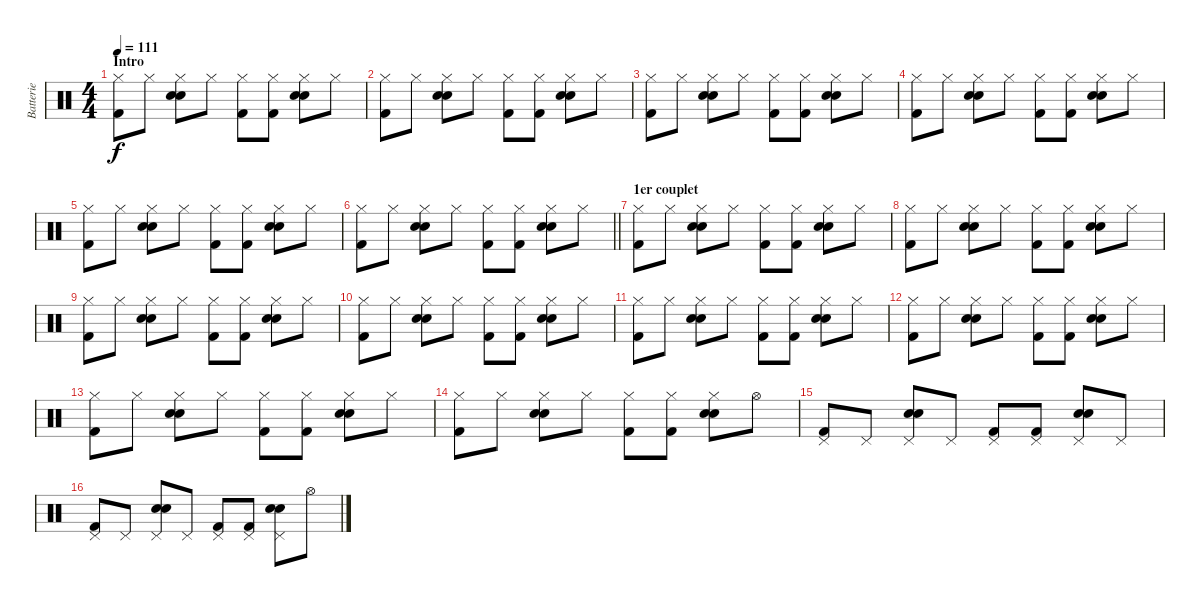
\track ("Batterie" "Batterie") {instrument percussion}
\staff {score}
\articulation defaults
\ts (4 4)
\section ("" "Intro")
\tempo 111
\clef neutral
\ks c
("Kick (hit) 2" "Hi-Hat (closed)").8{dy f} "Hi-Hat (closed)".8 ("Electric Snare (hit)" "Hi-Hat (closed)" "Hand Clap (hit)").8 "Hi-Hat (closed)".8 ("Kick (hit) 2" "Hi-Hat (closed)").8 ("Kick (hit) 2" "Hi-Hat (closed)").8 ("Electric Snare (hit)" "Hi-Hat (closed)" "Hand Clap (hit)").8 "Hi-Hat (closed)".8 |
("Kick (hit) 2" "Hi-Hat (closed)").8 "Hi-Hat (closed)".8 ("Electric Snare (hit)" "Hi-Hat (closed)" "Hand Clap (hit)").8 "Hi-Hat (closed)".8 ("Kick (hit) 2" "Hi-Hat (closed)").8 ("Kick (hit) 2" "Hi-Hat (closed)").8 ("Electric Snare (hit)" "Hi-Hat (closed)" "Hand Clap (hit)").8 "Hi-Hat (closed)".8 |
("Kick (hit) 2" "Hi-Hat (closed)").8 "Hi-Hat (closed)".8 ("Electric Snare (hit)" "Hi-Hat (closed)" "Hand Clap (hit)").8 "Hi-Hat (closed)".8 ("Kick (hit) 2" "Hi-Hat (closed)").8 ("Kick (hit) 2" "Hi-Hat (closed)").8 ("Electric Snare (hit)" "Hi-Hat (closed)" "Hand Clap (hit)").8 "Hi-Hat (closed)".8 |
("Kick (hit) 2" "Hi-Hat (closed)").8 "Hi-Hat (closed)".8 ("Electric Snare (hit)" "Hi-Hat (closed)" "Hand Clap (hit)").8 "Hi-Hat (closed)".8 ("Kick (hit) 2" "Hi-Hat (closed)").8 ("Kick (hit) 2" "Hi-Hat (closed)").8 ("Electric Snare (hit)" "Hi-Hat (closed)" "Hand Clap (hit)").8 "Hi-Hat (closed)".8 |
("Kick (hit) 2" "Hi-Hat (closed)").8 "Hi-Hat (closed)".8 ("Electric Snare (hit)" "Hi-Hat (closed)" "Hand Clap (hit)").8 "Hi-Hat (closed)".8 ("Kick (hit) 2" "Hi-Hat (closed)").8 ("Kick (hit) 2" "Hi-Hat (closed)").8 ("Electric Snare (hit)" "Hi-Hat (closed)" "Hand Clap (hit)").8 "Hi-Hat (closed)".8 |
\barLineRight lightlight
("Kick (hit) 2" "Hi-Hat (closed)").8 "Hi-Hat (closed)".8 ("Electric Snare (hit)" "Hi-Hat (closed)" "Hand Clap (hit)").8 "Hi-Hat (closed)".8 ("Kick (hit) 2" "Hi-Hat (closed)").8 ("Kick (hit) 2" "Hi-Hat (closed)").8 ("Electric Snare (hit)" "Hi-Hat (closed)" "Hand Clap (hit)").8 "Hi-Hat (closed)".8 |
\section ("" "1er couplet")
("Kick (hit) 2" "Hi-Hat (closed)").8 "Hi-Hat (closed)".8 ("Electric Snare (hit)" "Hi-Hat (closed)" "Hand Clap (hit)").8 "Hi-Hat (closed)".8 ("Kick (hit) 2" "Hi-Hat (closed)").8 ("Kick (hit) 2" "Hi-Hat (closed)").8 ("Electric Snare (hit)" "Hi-Hat (closed)" "Hand Clap (hit)").8 "Hi-Hat (closed)".8 |
("Kick (hit) 2" "Hi-Hat (closed)").8 "Hi-Hat (closed)".8 ("Electric Snare (hit)" "Hi-Hat (closed)" "Hand Clap (hit)").8 "Hi-Hat (closed)".8 ("Kick (hit) 2" "Hi-Hat (closed)").8 ("Kick (hit) 2" "Hi-Hat (closed)").8 ("Electric Snare (hit)" "Hi-Hat (closed)" "Hand Clap (hit)").8 "Hi-Hat (closed)".8 |
("Kick (hit) 2" "Hi-Hat (closed)").8 "Hi-Hat (closed)".8 ("Electric Snare (hit)" "Hi-Hat (closed)" "Hand Clap (hit)").8 "Hi-Hat (closed)".8 ("Kick (hit) 2" "Hi-Hat (closed)").8 ("Kick (hit) 2" "Hi-Hat (closed)").8 ("Electric Snare (hit)" "Hi-Hat (closed)" "Hand Clap (hit)").8 "Hi-Hat (closed)".8 |
("Kick (hit) 2" "Hi-Hat (closed)").8 "Hi-Hat (closed)".8 ("Electric Snare (hit)" "Hi-Hat (closed)" "Hand Clap (hit)").8 "Hi-Hat (closed)".8 ("Kick (hit) 2" "Hi-Hat (closed)").8 ("Kick (hit) 2" "Hi-Hat (closed)").8 ("Electric Snare (hit)" "Hi-Hat (closed)" "Hand Clap (hit)").8 "Hi-Hat (closed)".8 |
("Kick (hit) 2" "Hi-Hat (closed)").8 "Hi-Hat (closed)".8 ("Electric Snare (hit)" "Hi-Hat (closed)" "Hand Clap (hit)").8 "Hi-Hat (closed)".8 ("Kick (hit) 2" "Hi-Hat (closed)").8 ("Kick (hit) 2" "Hi-Hat (closed)").8 ("Electric Snare (hit)" "Hi-Hat (closed)" "Hand Clap (hit)").8 "Hi-Hat (closed)".8 |
("Kick (hit) 2" "Hi-Hat (closed)").8 "Hi-Hat (closed)".8 ("Electric Snare (hit)" "Hi-Hat (closed)" "Hand Clap (hit)").8 "Hi-Hat (closed)".8 ("Kick (hit) 2" "Hi-Hat (closed)").8 ("Kick (hit) 2" "Hi-Hat (closed)").8 ("Electric Snare (hit)" "Hi-Hat (closed)" "Hand Clap (hit)").8 "Hi-Hat (closed)".8 |
("Kick (hit) 2" "Hi-Hat (closed)").8 "Hi-Hat (closed)".8 ("Electric Snare (hit)" "Hi-Hat (closed)" "Hand Clap (hit)").8 "Hi-Hat (closed)".8 ("Kick (hit) 2" "Hi-Hat (closed)").8 ("Kick (hit) 2" "Hi-Hat (closed)").8 ("Electric Snare (hit)" "Hi-Hat (closed)" "Hand Clap (hit)").8 "Hi-Hat (closed)".8 |
("Kick (hit) 2" "Hi-Hat (closed)").8 "Hi-Hat (closed)".8 ("Electric Snare (hit)" "Hi-Hat (closed)" "Hand Clap (hit)").8 "Hi-Hat (closed)".8 ("Kick (hit) 2" "Hi-Hat (closed)").8 ("Kick (hit) 2" "Hi-Hat (closed)").8 ("Electric Snare (hit)" "Hi-Hat (closed)" "Hand Clap (hit)").8 "Hi-Hat (open)".8 |
("Kick (hit) 2" "Pedal Hi-Hat (hit)").8 "Pedal Hi-Hat (hit)".8 ("Snare (hit) 2" "Pedal Hi-Hat (hit)" "Hand Clap (hit)").8 "Pedal Hi-Hat (hit)".8 ("Kick (hit) 2" "Pedal Hi-Hat (hit)").8 ("Kick (hit) 2" "Pedal Hi-Hat (hit)").8 ("Snare (hit) 2" "Pedal Hi-Hat (hit)" "Hand Clap (hit)").8 "Pedal Hi-Hat (hit)".8 |
("Kick (hit) 2" "Pedal Hi-Hat (hit)").8 "Pedal Hi-Hat (hit)".8 ("Snare (hit) 2" "Pedal Hi-Hat (hit)" "Hand Clap (hit)").8 "Pedal Hi-Hat (hit)".8 ("Kick (hit) 2" "Pedal Hi-Hat (hit)").8 ("Kick (hit) 2" "Pedal Hi-Hat (hit)").8 ("Snare (hit) 2" "Pedal Hi-Hat (hit)" "Hand Clap (hit)").8 "Hi-Hat (open)".8
